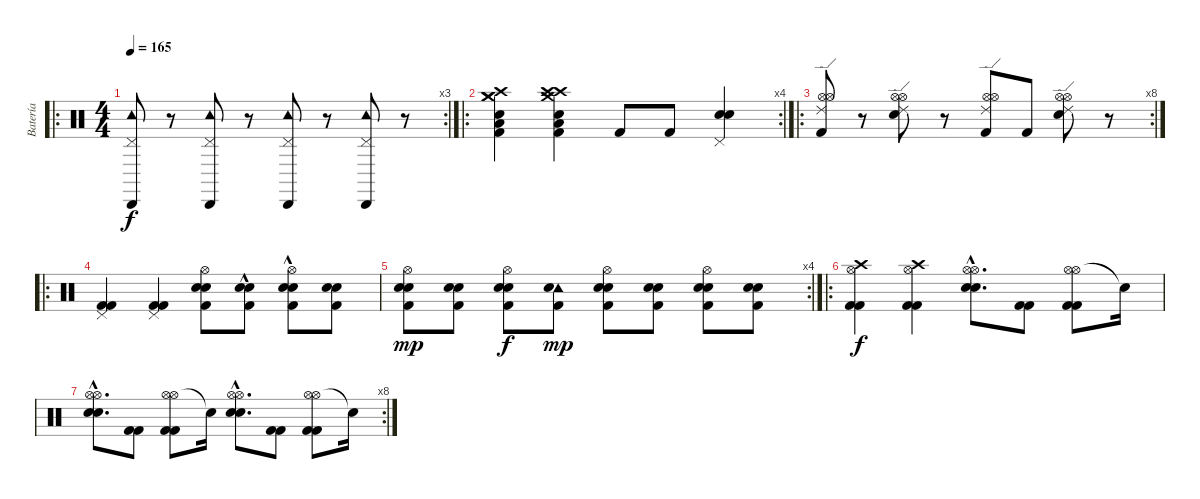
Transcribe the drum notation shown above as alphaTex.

\track ("Batería" "Batería") {instrument percussion}
\staff {score}
\articulation defaults
\ro
\rc 3
\ts (4 4)
\tempo 165
\clef neutral
\ks c
("Tambourine (hit)" "Cabasa (hit)" "Pedal Hi-Hat (hit)").8{dy f} r.8 ("Tambourine (hit)" "Cabasa (hit)" "Pedal Hi-Hat (hit)").8 r.8 ("Tambourine (hit)" "Cabasa (hit)" "Pedal Hi-Hat (hit)").8 r.8 ("Tambourine (hit)" "Cabasa (hit)" "Pedal Hi-Hat (hit)").8 r.8 |
\ro
\rc 4
("Crash high (hit)" "Crash medium (hit)" "Crash medium (hit)" "Low Tom (hit)" "Snare (hit) 2" "Kick (hit) 2").4 ("Crash high (hit)" "Crash high (hit)" "Crash medium (hit)" "Low Tom (hit)" "Snare (hit) 2" "Kick (hit) 2").4 "Kick (hit) 2".8 "Kick (hit) 2".8 ("Pedal Hi-Hat (hit)" "Snare (hit) 2" "Electric Snare (hit)").4 |
\ro
\rc 8
("Hi-Hat (open)" "Hi-Hat (open)" "Ride (edge) 2" "Kick (hit) 2").8 r.8 ("Snare (hit) 2" "Hi-Hat (open)" "Hi-Hat (open)" "Ride (edge) 2").8 r.8 ("Hi-Hat (open)" "Hi-Hat (open)" "Ride (edge) 2" "Kick (hit) 2").8 "Kick (hit) 2".8 ("Snare (hit) 2" "Hi-Hat (open)" "Hi-Hat (open)" "Ride (edge) 2").8 r.8 |
\ro
("Pedal Hi-Hat (hit)" "Kick (hit) 2" "Kick (hit) 2").4 ("Pedal Hi-Hat (hit)" "Kick (hit) 2" "Kick (hit) 2").4 ("Hi-Hat (open)" "Electric Snare (hit)" "Electric Snare (hit)" "Kick (hit) 2").8 ("Snare (hit) 2" "Snare (hit) 2"{hac} "Kick (hit) 2").8 ("Hi-Hat (open)" "Snare (hit) 2" "Snare (hit) 2"{hac} "Kick (hit) 2").8 ("Electric Snare (hit)" "Electric Snare (hit)" "Kick (hit) 2").8 |
\rc 4
("Hi-Hat (open)" "Snare (hit) 2" "Snare (hit) 2" "Kick (hit) 2").8{dy mp} ("Snare (hit) 2" "Snare (hit) 2" "Kick (hit) 2").8 ("Hi-Hat (open)" "Electric Snare (hit)" "Electric Snare (hit)" "Kick (hit) 2").8{dy f} ("Tambourine (hit)" "Snare (hit) 2" "Kick (hit) 2").8{dy mp} ("Hi-Hat (open)" "Snare (hit) 2" "Snare (hit) 2" "Kick (hit) 2").8 ("Snare (hit) 2" "Snare (hit) 2" "Kick (hit) 2").8 ("Hi-Hat (open)" "Snare (hit) 2" "Snare (hit) 2" "Kick (hit) 2").8 ("Electric Snare (hit)" "Electric Snare (hit)" "Kick (hit) 2").8 |
\ro
("Hi-Hat (open)" "Crash high (hit)" "Kick (hit) 2" "Kick (hit) 2").4{dy f} ("Hi-Hat (open)" "Crash high (hit)" "Kick (hit) 2" "Kick (hit) 2").4 ("Hi-Hat (open)"{hac} "Hi-Hat (open)"{hac} "Snare (hit) 2"{hac} "Electric Snare (hit)"{hac}).8{d} ("Kick (hit) 2" "Kick (hit) 2").8 ("Hi-Hat (open)" "Hi-Hat (open)" "Kick (hit) 2" "Kick (hit) 2").8 "Snare (hit)"{t}.16 |
\rc 8
("Hi-Hat (open)"{hac} "Hi-Hat (open)"{hac} "Snare (hit) 2"{hac} "Electric Snare (hit)"{hac}).8{d} ("Kick (hit) 2" "Kick (hit) 2").8 ("Hi-Hat (open)" "Hi-Hat (open)" "Kick (hit) 2" "Kick (hit) 2").8 "Snare (hit)"{t}.16 ("Hi-Hat (open)"{hac} "Hi-Hat (open)"{hac} "Snare (hit) 2"{hac} "Electric Snare (hit)"{hac}).8{d} ("Kick (hit) 2" "Kick (hit) 2").8 ("Hi-Hat (open)" "Hi-Hat (open)" "Kick (hit) 2" "Kick (hit) 2").8 "Snare (hit)"{t}.16
